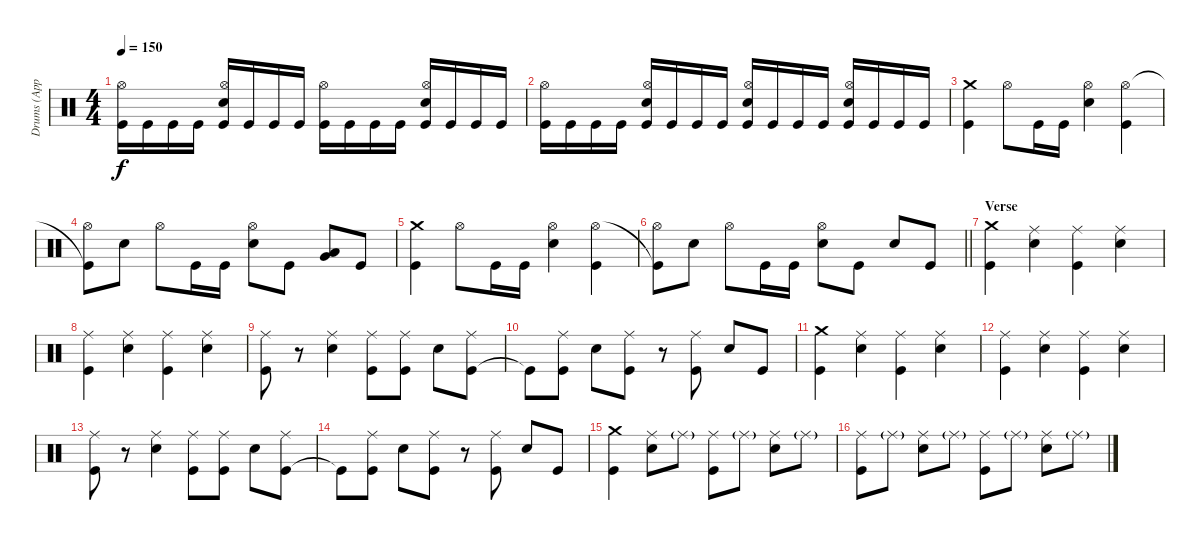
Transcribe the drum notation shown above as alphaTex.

\track ("Drums (Appelhans/Durst)" "Drums (App") {instrument percussion}
\staff {score}
\articulation defaults
\ts (4 4)
\tempo 150
\clef neutral
\ks c
("Kick (hit)" "Hi-Hat (open)").16{dy f} "Kick (hit)".16 "Kick (hit)".16 "Kick (hit)".16 ("Kick (hit)" "Hi-Hat (open)" "Snare (hit) 2").16 "Kick (hit)".16 "Kick (hit)".16 "Kick (hit)".16 ("Kick (hit)" "Hi-Hat (open)").16 "Kick (hit)".16 "Kick (hit)".16 "Kick (hit)".16 ("Kick (hit)" "Hi-Hat (open)" "Snare (hit) 2").16 "Kick (hit)".16 "Kick (hit)".16 "Kick (hit)".16 |
("Kick (hit)" "Hi-Hat (open)").16 "Kick (hit)".16 "Kick (hit)".16 "Kick (hit)".16 ("Kick (hit)" "Hi-Hat (open)" "Snare (hit) 2").16 "Kick (hit)".16 "Kick (hit)".16 "Kick (hit)".16 ("Kick (hit)" "Hi-Hat (open)" "Snare (hit) 2").16 "Kick (hit)".16 "Kick (hit)".16 "Kick (hit)".16 ("Kick (hit)" "Hi-Hat (open)" "Snare (hit) 2").16 "Kick (hit)".16 "Kick (hit)".16 "Kick (hit)".16 |
("Kick (hit)" "Crash medium (hit)").4 "Hi-Hat (open)".8 "Kick (hit)".16 "Kick (hit)".16 ("Snare (hit) 2" "Hi-Hat (open)").4 ("Hi-Hat (open)" "Kick (hit)").4 |
("Kick (hit)"{t} "Hi-Hat (open)").8 "Snare (hit) 2".8 "Hi-Hat (open)".8 "Kick (hit)".16 "Kick (hit)".16 ("Snare (hit) 2" "Hi-Hat (open)").8 "Kick (hit)".8 ("Low Tom (hit)" "Very Low Tom (hit)").8 "Kick (hit)".8 |
("Kick (hit)" "Crash medium (hit)").4 "Hi-Hat (open)".8 "Kick (hit)".16 "Kick (hit)".16 ("Snare (hit) 2" "Hi-Hat (open)").4 ("Hi-Hat (open)" "Kick (hit)").4 |
\barLineRight lightlight
("Kick (hit)"{t} "Hi-Hat (open)").8 "Snare (hit) 2".8 "Hi-Hat (open)".8 "Kick (hit)".16 "Kick (hit)".16 ("Snare (hit) 2" "Hi-Hat (open)").8 "Kick (hit)".8 "Snare (hit) 2".8 "Kick (hit)".8 |
\section ("" "Verse")
("Kick (hit)" "Crash medium (hit)").4 ("Snare (hit) 2" "Ride (middle)").4 ("Kick (hit)" "Ride (middle)").4 ("Snare (hit) 2" "Ride (middle)").4 |
("Kick (hit)" "Ride (middle)").4 ("Snare (hit) 2" "Ride (middle)").4 ("Kick (hit)" "Ride (middle)").4 ("Snare (hit) 2" "Ride (middle)").4 |
("Kick (hit)" "Ride (middle)").8 r.8 ("Snare (hit) 2" "Ride (middle)").4 ("Kick (hit)" "Ride (middle)").8 ("Kick (hit)" "Ride (middle)").8 "Snare (hit) 2".8 ("Kick (hit)" "Ride (middle)").8 |
"Kick (hit)"{t}.8 ("Kick (hit)" "Ride (middle)").8 "Snare (hit) 2".8 ("Kick (hit)" "Ride (middle)").8 r.8 ("Kick (hit)" "Ride (middle)").8 "Snare (hit) 2".8 "Kick (hit)".8 |
("Kick (hit)" "Crash medium (hit)").4 ("Snare (hit) 2" "Ride (middle)").4 ("Kick (hit)" "Ride (middle)").4 ("Snare (hit) 2" "Ride (middle)").4 |
("Kick (hit)" "Ride (middle)").4 ("Snare (hit) 2" "Ride (middle)").4 ("Kick (hit)" "Ride (middle)").4 ("Snare (hit) 2" "Ride (middle)").4 |
("Kick (hit)" "Ride (middle)").8 r.8 ("Snare (hit) 2" "Ride (middle)").4 ("Kick (hit)" "Ride (middle)").8 ("Kick (hit)" "Ride (middle)").8 "Snare (hit) 2".8 ("Kick (hit)" "Ride (middle)").8 |
"Kick (hit)"{t}.8 ("Kick (hit)" "Ride (middle)").8 "Snare (hit) 2".8 ("Kick (hit)" "Ride (middle)").8 r.8 ("Kick (hit)" "Ride (middle)").8 "Snare (hit) 2".8 "Kick (hit)".8 |
("Kick (hit)" "Crash medium (hit)").4 ("Ride (middle)" "Snare (hit) 2").8 "Ride (middle)"{g}.8 ("Ride (middle)" "Kick (hit)").8 "Ride (middle)"{g}.8 ("Ride (middle)" "Snare (hit) 2").8 "Ride (middle)"{g}.8 |
("Ride (middle)" "Kick (hit)").8 "Ride (middle)"{g}.8 ("Ride (middle)" "Snare (hit) 2").8 "Ride (middle)"{g}.8 ("Ride (middle)" "Kick (hit)").8 "Ride (middle)"{g}.8 ("Ride (middle)" "Snare (hit) 2").8 "Ride (middle)"{g}.8
